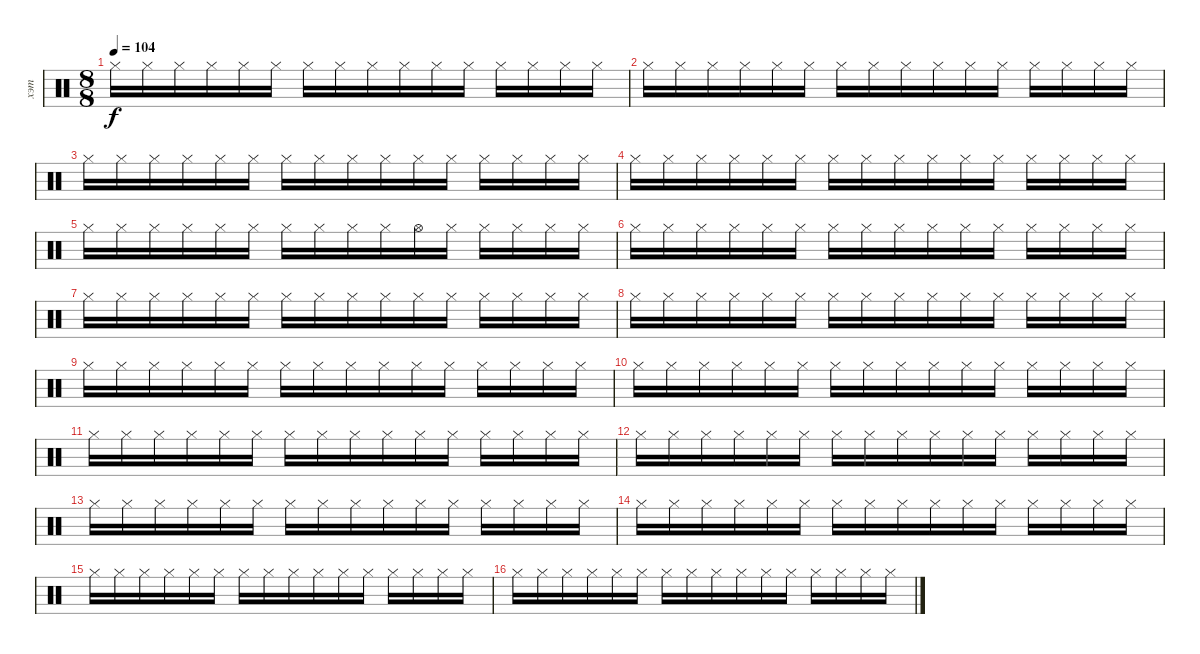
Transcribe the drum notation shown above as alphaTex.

\track ("хэт" "хэт") {instrument percussion}
\staff {score}
\articulation defaults
\ts (8 8)
\tempo 104
\clef neutral
\ks c "Hi-Hat (closed)".16{dy f} "Hi-Hat (closed)".16 "Hi-Hat (closed)".16 "Hi-Hat (closed)".16 "Hi-Hat (closed)".16 "Hi-Hat (closed)".16 "Hi-Hat (closed)".16 "Hi-Hat (closed)".16 "Hi-Hat (closed)".16 "Hi-Hat (closed)".16 "Hi-Hat (closed)".16 "Hi-Hat (closed)".16 "Hi-Hat (closed)".16 "Hi-Hat (closed)".16 "Hi-Hat (closed)".16 "Hi-Hat (closed)".16
|
"Hi-Hat (closed)".16 "Hi-Hat (closed)".16 "Hi-Hat (closed)".16 "Hi-Hat (closed)".16 "Hi-Hat (closed)".16 "Hi-Hat (closed)".16 "Hi-Hat (closed)".16 "Hi-Hat (closed)".16 "Hi-Hat (closed)".16 "Hi-Hat (closed)".16 "Hi-Hat (closed)".16 "Hi-Hat (closed)".16 "Hi-Hat (closed)".16 "Hi-Hat (closed)".16 "Hi-Hat (closed)".16 "Hi-Hat (closed)".16 |
"Hi-Hat (closed)".16 "Hi-Hat (closed)".16 "Hi-Hat (closed)".16 "Hi-Hat (closed)".16 "Hi-Hat (closed)".16 "Hi-Hat (closed)".16 "Hi-Hat (closed)".16 "Hi-Hat (closed)".16 "Hi-Hat (closed)".16 "Hi-Hat (closed)".16 "Hi-Hat (closed)".16 "Hi-Hat (closed)".16 "Hi-Hat (closed)".16 "Hi-Hat (closed)".16 "Hi-Hat (closed)".16 "Hi-Hat (closed)".16 |
"Hi-Hat (closed)".16 "Hi-Hat (closed)".16 "Hi-Hat (closed)".16 "Hi-Hat (closed)".16 "Hi-Hat (closed)".16 "Hi-Hat (closed)".16 "Hi-Hat (closed)".16 "Hi-Hat (closed)".16 "Hi-Hat (closed)".16 "Hi-Hat (closed)".16 "Hi-Hat (closed)".16 "Hi-Hat (closed)".16 "Hi-Hat (closed)".16 "Hi-Hat (closed)".16 "Hi-Hat (closed)".16 "Hi-Hat (closed)".16 |
"Hi-Hat (closed)".16 "Hi-Hat (closed)".16 "Hi-Hat (closed)".16 "Hi-Hat (closed)".16 "Hi-Hat (closed)".16 "Hi-Hat (closed)".16 "Hi-Hat (closed)".16 "Hi-Hat (closed)".16 "Hi-Hat (closed)".16 "Hi-Hat (closed)".16 "Hi-Hat (open)".16 "Hi-Hat (closed)".16 "Hi-Hat (closed)".16 "Hi-Hat (closed)".16 "Hi-Hat (closed)".16 "Hi-Hat (closed)".16 |
"Hi-Hat (closed)".16 "Hi-Hat (closed)".16 "Hi-Hat (closed)".16 "Hi-Hat (closed)".16 "Hi-Hat (closed)".16 "Hi-Hat (closed)".16 "Hi-Hat (closed)".16 "Hi-Hat (closed)".16 "Hi-Hat (closed)".16 "Hi-Hat (closed)".16 "Hi-Hat (closed)".16 "Hi-Hat (closed)".16 "Hi-Hat (closed)".16 "Hi-Hat (closed)".16 "Hi-Hat (closed)".16 "Hi-Hat (closed)".16 |
"Hi-Hat (closed)".16 "Hi-Hat (closed)".16 "Hi-Hat (closed)".16 "Hi-Hat (closed)".16 "Hi-Hat (closed)".16 "Hi-Hat (closed)".16 "Hi-Hat (closed)".16 "Hi-Hat (closed)".16 "Hi-Hat (closed)".16 "Hi-Hat (closed)".16 "Hi-Hat (closed)".16 "Hi-Hat (closed)".16 "Hi-Hat (closed)".16 "Hi-Hat (closed)".16 "Hi-Hat (closed)".16 "Hi-Hat (closed)".16 |
"Hi-Hat (closed)".16 "Hi-Hat (closed)".16 "Hi-Hat (closed)".16 "Hi-Hat (closed)".16 "Hi-Hat (closed)".16 "Hi-Hat (closed)".16 "Hi-Hat (closed)".16 "Hi-Hat (closed)".16 "Hi-Hat (closed)".16 "Hi-Hat (closed)".16 "Hi-Hat (closed)".16 "Hi-Hat (closed)".16 "Hi-Hat (closed)".16 "Hi-Hat (closed)".16 "Hi-Hat (closed)".16 "Hi-Hat (closed)".16 |
"Hi-Hat (closed)".16 "Hi-Hat (closed)".16 "Hi-Hat (closed)".16 "Hi-Hat (closed)".16 "Hi-Hat (closed)".16 "Hi-Hat (closed)".16 "Hi-Hat (closed)".16 "Hi-Hat (closed)".16 "Hi-Hat (closed)".16 "Hi-Hat (closed)".16 "Hi-Hat (closed)".16 "Hi-Hat (closed)".16 "Hi-Hat (closed)".16 "Hi-Hat (closed)".16 "Hi-Hat (closed)".16 "Hi-Hat (closed)".16 |
"Hi-Hat (closed)".16 "Hi-Hat (closed)".16 "Hi-Hat (closed)".16 "Hi-Hat (closed)".16 "Hi-Hat (closed)".16 "Hi-Hat (closed)".16 "Hi-Hat (closed)".16 "Hi-Hat (closed)".16 "Hi-Hat (closed)".16 "Hi-Hat (closed)".16 "Hi-Hat (closed)".16 "Hi-Hat (closed)".16 "Hi-Hat (closed)".16 "Hi-Hat (closed)".16 "Hi-Hat (closed)".16 "Hi-Hat (closed)".16 |
"Hi-Hat (closed)".16 "Hi-Hat (closed)".16 "Hi-Hat (closed)".16 "Hi-Hat (closed)".16 "Hi-Hat (closed)".16 "Hi-Hat (closed)".16 "Hi-Hat (closed)".16 "Hi-Hat (closed)".16 "Hi-Hat (closed)".16 "Hi-Hat (closed)".16 "Hi-Hat (closed)".16 "Hi-Hat (closed)".16 "Hi-Hat (closed)".16 "Hi-Hat (closed)".16 "Hi-Hat (closed)".16 "Hi-Hat (closed)".16 |
"Hi-Hat (closed)".16 "Hi-Hat (closed)".16 "Hi-Hat (closed)".16 "Hi-Hat (closed)".16 "Hi-Hat (closed)".16 "Hi-Hat (closed)".16 "Hi-Hat (closed)".16 "Hi-Hat (closed)".16 "Hi-Hat (closed)".16 "Hi-Hat (closed)".16 "Hi-Hat (closed)".16 "Hi-Hat (closed)".16 "Hi-Hat (closed)".16 "Hi-Hat (closed)".16 "Hi-Hat (closed)".16 "Hi-Hat (closed)".16 |
"Hi-Hat (closed)".16 "Hi-Hat (closed)".16 "Hi-Hat (closed)".16 "Hi-Hat (closed)".16 "Hi-Hat (closed)".16 "Hi-Hat (closed)".16 "Hi-Hat (closed)".16 "Hi-Hat (closed)".16 "Hi-Hat (closed)".16 "Hi-Hat (closed)".16 "Hi-Hat (closed)".16 "Hi-Hat (closed)".16 "Hi-Hat (closed)".16 "Hi-Hat (closed)".16 "Hi-Hat (closed)".16 "Hi-Hat (closed)".16 |
"Hi-Hat (closed)".16 "Hi-Hat (closed)".16 "Hi-Hat (closed)".16 "Hi-Hat (closed)".16 "Hi-Hat (closed)".16 "Hi-Hat (closed)".16 "Hi-Hat (closed)".16 "Hi-Hat (closed)".16 "Hi-Hat (closed)".16 "Hi-Hat (closed)".16 "Hi-Hat (closed)".16 "Hi-Hat (closed)".16 "Hi-Hat (closed)".16 "Hi-Hat (closed)".16 "Hi-Hat (closed)".16 "Hi-Hat (closed)".16 |
"Hi-Hat (closed)".16 "Hi-Hat (closed)".16 "Hi-Hat (closed)".16 "Hi-Hat (closed)".16 "Hi-Hat (closed)".16 "Hi-Hat (closed)".16 "Hi-Hat (closed)".16 "Hi-Hat (closed)".16 "Hi-Hat (closed)".16 "Hi-Hat (closed)".16 "Hi-Hat (closed)".16 "Hi-Hat (closed)".16 "Hi-Hat (closed)".16 "Hi-Hat (closed)".16 "Hi-Hat (closed)".16 "Hi-Hat (closed)".16 |
"Hi-Hat (closed)".16 "Hi-Hat (closed)".16 "Hi-Hat (closed)".16 "Hi-Hat (closed)".16 "Hi-Hat (closed)".16 "Hi-Hat (closed)".16 "Hi-Hat (closed)".16 "Hi-Hat (closed)".16 "Hi-Hat (closed)".16 "Hi-Hat (closed)".16 "Hi-Hat (closed)".16 "Hi-Hat (closed)".16 "Hi-Hat (closed)".16 "Hi-Hat (closed)".16 "Hi-Hat (closed)".16 "Hi-Hat (closed)".16
